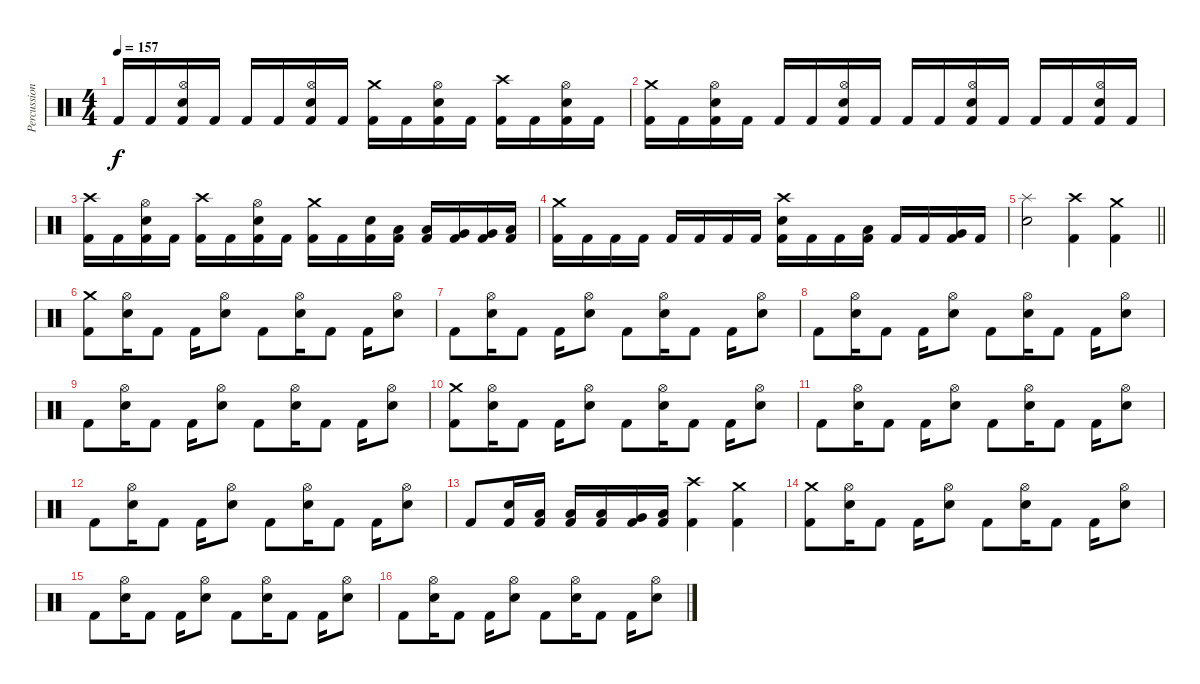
\track ("Percussion" "Percussion") {instrument percussion}
\staff {score}
\articulation defaults
\ts (4 4)
\tempo 157
\clef neutral
\ks c "Kick (hit) 2".16{dy f} "Kick (hit) 2".16
("Hi-Hat (open)" "Electric Snare (hit)" "Kick (hit) 2").16 "Kick (hit) 2".16 "Kick (hit) 2".16 "Kick (hit) 2".16 ("Hi-Hat (open)" "Electric Snare (hit)" "Kick (hit) 2").16 "Kick (hit) 2".16 ("Crash medium (hit)" "Kick (hit) 2").16 "Kick (hit) 2".16 ("Hi-Hat (open)" "Electric Snare (hit)" "Kick (hit) 2").16 "Kick (hit) 2".16 ("Crash high (hit)" "Kick (hit) 2").16 "Kick (hit) 2".16 ("Hi-Hat (open)" "Electric Snare (hit)" "Kick (hit) 2").16 "Kick (hit) 2".16 |
("Crash medium (hit)" "Kick (hit) 2").16 "Kick (hit) 2".16 ("Hi-Hat (open)" "Electric Snare (hit)" "Kick (hit) 2").16 "Kick (hit) 2".16 "Kick (hit) 2".16 "Kick (hit) 2".16 ("Hi-Hat (open)" "Electric Snare (hit)" "Kick (hit) 2").16 "Kick (hit) 2".16 "Kick (hit) 2".16 "Kick (hit) 2".16 ("Hi-Hat (open)" "Electric Snare (hit)" "Kick (hit) 2").16 "Kick (hit) 2".16 "Kick (hit) 2".16 "Kick (hit) 2".16 ("Hi-Hat (open)" "Electric Snare (hit)" "Kick (hit) 2").16 "Kick (hit) 2".16 |
("Crash high (hit)" "Kick (hit) 2").16 "Kick (hit) 2".16 ("Hi-Hat (open)" "Electric Snare (hit)" "Kick (hit) 2").16 "Kick (hit) 2".16 ("Crash high (hit)" "Kick (hit) 2").16 "Kick (hit) 2".16 ("Hi-Hat (open)" "Electric Snare (hit)" "Kick (hit) 2").16 "Kick (hit) 2".16 ("Crash medium (hit)" "Kick (hit) 2").16 "Kick (hit) 2".16 ("Electric Snare (hit)" "Kick (hit) 2").16 ("Low Tom (hit)" "Kick (hit) 2").16 ("Low Tom (hit)" "Kick (hit) 2").16 ("Very Low Tom (hit)" "Kick (hit) 2").16 ("Very Low Tom (hit)" "Kick (hit) 2").16 ("Low Floor Tom (hit)" "Kick (hit) 2").16 |
("Crash medium (hit)" "Kick (hit) 2").16 "Kick (hit) 2".16 "Kick (hit) 2".16 "Kick (hit) 2".16 "Kick (hit) 2".16 "Kick (hit) 2".16 "Kick (hit) 2".16 "Kick (hit) 2".16 ("Crash high (hit)" "Electric Snare (hit)" "Kick (hit) 2").16 "Kick (hit) 2".16 "Kick (hit) 2".16 ("Low Tom (hit)" "Kick (hit) 2").16 "Kick (hit) 2".16 "Kick (hit) 2".16 ("Very Low Tom (hit)" "Kick (hit) 2").16 "Kick (hit) 2".16 |
\barLineRight lightlight
("Splash (hit)" "Electric Snare (hit)").2 ("Crash high (hit)" "Kick (hit) 2").4 ("Crash medium (hit)" "Kick (hit) 2").4 |
("Crash medium (hit)" "Kick (hit) 2").8 ("Hi-Hat (open)" "Electric Snare (hit)").16 "Kick (hit) 2".8 "Kick (hit) 2".16 ("Hi-Hat (open)" "Electric Snare (hit)").8 "Kick (hit) 2".8 ("Hi-Hat (open)" "Electric Snare (hit)").16 "Kick (hit) 2".8 "Kick (hit) 2".16 ("Hi-Hat (open)" "Electric Snare (hit)").8 |
"Kick (hit) 2".8 ("Hi-Hat (open)" "Electric Snare (hit)").16 "Kick (hit) 2".8 "Kick (hit) 2".16 ("Hi-Hat (open)" "Electric Snare (hit)").8 "Kick (hit) 2".8 ("Hi-Hat (open)" "Electric Snare (hit)").16 "Kick (hit) 2".8 "Kick (hit) 2".16 ("Hi-Hat (open)" "Electric Snare (hit)").8 |
"Kick (hit) 2".8 ("Hi-Hat (open)" "Electric Snare (hit)").16 "Kick (hit) 2".8 "Kick (hit) 2".16 ("Hi-Hat (open)" "Electric Snare (hit)").8 "Kick (hit) 2".8 ("Hi-Hat (open)" "Electric Snare (hit)").16 "Kick (hit) 2".8 "Kick (hit) 2".16 ("Hi-Hat (open)" "Electric Snare (hit)").8 |
"Kick (hit) 2".8 ("Hi-Hat (open)" "Electric Snare (hit)").16 "Kick (hit) 2".8 "Kick (hit) 2".16 ("Hi-Hat (open)" "Electric Snare (hit)").8 "Kick (hit) 2".8 ("Hi-Hat (open)" "Electric Snare (hit)").16 "Kick (hit) 2".8 "Kick (hit) 2".16 ("Hi-Hat (open)" "Electric Snare (hit)").8 |
("Crash medium (hit)" "Kick (hit) 2").8 ("Hi-Hat (open)" "Electric Snare (hit)").16 "Kick (hit) 2".8 "Kick (hit) 2".16 ("Hi-Hat (open)" "Electric Snare (hit)").8 "Kick (hit) 2".8 ("Hi-Hat (open)" "Electric Snare (hit)").16 "Kick (hit) 2".8 "Kick (hit) 2".16 ("Hi-Hat (open)" "Electric Snare (hit)").8 |
"Kick (hit) 2".8 ("Hi-Hat (open)" "Electric Snare (hit)").16 "Kick (hit) 2".8 "Kick (hit) 2".16 ("Hi-Hat (open)" "Electric Snare (hit)").8 "Kick (hit) 2".8 ("Hi-Hat (open)" "Electric Snare (hit)").16 "Kick (hit) 2".8 "Kick (hit) 2".16 ("Hi-Hat (open)" "Electric Snare (hit)").8 |
"Kick (hit) 2".8 ("Hi-Hat (open)" "Electric Snare (hit)").16 "Kick (hit) 2".8 "Kick (hit) 2".16 ("Hi-Hat (open)" "Electric Snare (hit)").8 "Kick (hit) 2".8 ("Hi-Hat (open)" "Electric Snare (hit)").16 "Kick (hit) 2".8 "Kick (hit) 2".16 ("Hi-Hat (open)" "Electric Snare (hit)").8 |
"Kick (hit) 2".8 ("Electric Snare (hit)" "Kick (hit) 2").16 ("Low Tom (hit)" "Kick (hit) 2").16 ("Low Tom (hit)" "Kick (hit) 2").16 ("Low Tom (hit)" "Kick (hit) 2").16 ("Very Low Tom (hit)" "Kick (hit) 2").16 ("Low Floor Tom (hit)" "Kick (hit) 2").16 ("Crash high (hit)" "Kick (hit) 2").4 ("Crash medium (hit)" "Kick (hit) 2").4 |
("Crash medium (hit)" "Kick (hit) 2").8 ("Hi-Hat (open)" "Electric Snare (hit)").16 "Kick (hit) 2".8 "Kick (hit) 2".16 ("Hi-Hat (open)" "Electric Snare (hit)").8 "Kick (hit) 2".8 ("Hi-Hat (open)" "Electric Snare (hit)").16 "Kick (hit) 2".8 "Kick (hit) 2".16 ("Hi-Hat (open)" "Electric Snare (hit)").8 |
"Kick (hit) 2".8 ("Hi-Hat (open)" "Electric Snare (hit)").16 "Kick (hit) 2".8 "Kick (hit) 2".16 ("Hi-Hat (open)" "Electric Snare (hit)").8 "Kick (hit) 2".8 ("Hi-Hat (open)" "Electric Snare (hit)").16 "Kick (hit) 2".8 "Kick (hit) 2".16 ("Hi-Hat (open)" "Electric Snare (hit)").8 |
"Kick (hit) 2".8 ("Hi-Hat (open)" "Electric Snare (hit)").16 "Kick (hit) 2".8 "Kick (hit) 2".16 ("Hi-Hat (open)" "Electric Snare (hit)").8 "Kick (hit) 2".8 ("Hi-Hat (open)" "Electric Snare (hit)").16 "Kick (hit) 2".8 "Kick (hit) 2".16 ("Hi-Hat (open)" "Electric Snare (hit)").8
